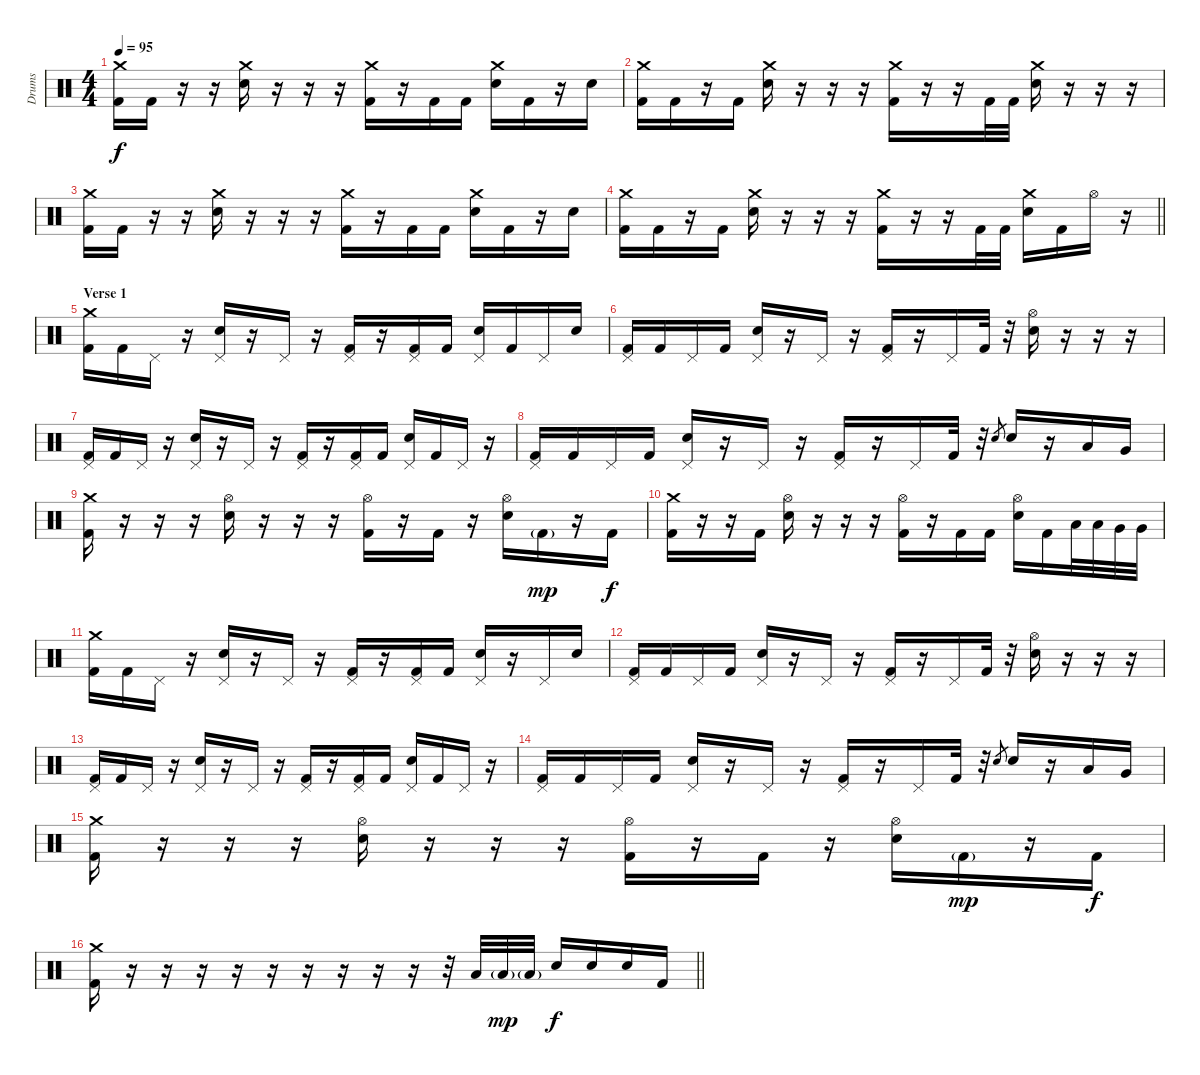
\track ("Drums" "Drums") {instrument percussion}
\staff {score}
\articulation defaults
\ts (4 4)
\tempo 95
\clef neutral
\ks c
("Crash medium (hit)" "Kick (hit) 2").16{dy f} "Kick (hit) 2".16 r.16 r.16 ("Crash medium (hit)" "Electric Snare (hit)").16 r.16 r.16 r.16 ("Crash medium (hit)" "Kick (hit) 2").16 r.16 "Kick (hit) 2".16 "Kick (hit) 2".16 ("Crash medium (hit)" "Electric Snare (hit)").16 "Kick (hit) 2".16 r.16 "Electric Snare (hit)".16 |
("Crash medium (hit)" "Kick (hit) 2").16 "Kick (hit) 2".16 r.16 "Kick (hit) 2".16 ("Crash medium (hit)" "Electric Snare (hit)").16 r.16 r.16 r.16 ("Crash medium (hit)" "Kick (hit) 2").16 r.16 r.16 "Kick (hit) 2".32 "Kick (hit) 2".32 ("Crash medium (hit)" "Electric Snare (hit)").16 r.16 r.16 r.16 |
("Crash medium (hit)" "Kick (hit) 2").16 "Kick (hit) 2".16 r.16 r.16 ("Crash medium (hit)" "Electric Snare (hit)").16 r.16 r.16 r.16 ("Crash medium (hit)" "Kick (hit) 2").16 r.16 "Kick (hit) 2".16 "Kick (hit) 2".16 ("Crash medium (hit)" "Electric Snare (hit)").16 "Kick (hit) 2".16 r.16 "Electric Snare (hit)".16 |
\barLineRight lightlight
("Crash medium (hit)" "Kick (hit) 2").16 "Kick (hit) 2".16 r.16 "Kick (hit) 2".16 ("Crash medium (hit)" "Electric Snare (hit)").16 r.16 r.16 r.16 ("Crash medium (hit)" "Kick (hit) 2").16 r.16 r.16 "Kick (hit) 2".32 "Kick (hit) 2".32 ("Crash medium (hit)" "Electric Snare (hit)").16 "Kick (hit) 2".16 "Hi-Hat (open)".16 r.16 |
\section ("" "Verse 1")
("Crash medium (hit)" "Kick (hit) 2").16 "Kick (hit) 2".16 "Pedal Hi-Hat (hit)".16 r.16 ("Pedal Hi-Hat (hit)" "Electric Snare (hit)").16 r.16 "Pedal Hi-Hat (hit)".16 r.16 ("Pedal Hi-Hat (hit)" "Kick (hit) 2").16 r.16 ("Pedal Hi-Hat (hit)" "Kick (hit) 2").16 "Kick (hit) 2".16 ("Pedal Hi-Hat (hit)" "Electric Snare (hit)").16 "Kick (hit) 2".16 "Pedal Hi-Hat (hit)".16 "Electric Snare (hit)".16 |
("Pedal Hi-Hat (hit)" "Kick (hit) 2").16 "Kick (hit) 2".16 "Pedal Hi-Hat (hit)".16 "Kick (hit) 2".16 ("Pedal Hi-Hat (hit)" "Electric Snare (hit)").16 r.16 "Pedal Hi-Hat (hit)".16 r.16 ("Pedal Hi-Hat (hit)" "Kick (hit) 2").16 r.16 "Pedal Hi-Hat (hit)".16 "Kick (hit) 2".32 r.32 ("Hi-Hat (open)" "Electric Snare (hit)").16 r.16 r.16 r.16 |
("Pedal Hi-Hat (hit)" "Kick (hit) 2").16 "Kick (hit) 2".16 "Pedal Hi-Hat (hit)".16 r.16 ("Pedal Hi-Hat (hit)" "Electric Snare (hit)").16 r.16 "Pedal Hi-Hat (hit)".16 r.16 ("Pedal Hi-Hat (hit)" "Kick (hit) 2").16 r.16 ("Pedal Hi-Hat (hit)" "Kick (hit) 2").16 "Kick (hit) 2".16 ("Pedal Hi-Hat (hit)" "Electric Snare (hit)").16 "Kick (hit) 2".16 "Pedal Hi-Hat (hit)".16 r.16 |
("Pedal Hi-Hat (hit)" "Kick (hit) 2").16 "Kick (hit) 2".16 "Pedal Hi-Hat (hit)".16 "Kick (hit) 2".16 ("Pedal Hi-Hat (hit)" "Electric Snare (hit)").16 r.16 "Pedal Hi-Hat (hit)".16 r.16 ("Pedal Hi-Hat (hit)" "Kick (hit) 2").16 r.16 "Pedal Hi-Hat (hit)".16 "Kick (hit) 2".32 r.32 "Electric Snare (hit)".8{gr} "Electric Snare (hit)".16 r.16 "Low Tom (hit)".16 "Very Low Tom (hit)".16 |
("Crash medium (hit)" "Kick (hit) 2").16 r.16 r.16 r.16 ("Hi-Hat (open)" "Electric Snare (hit)").16 r.16 r.16 r.16 ("Hi-Hat (open)" "Kick (hit) 2").16 r.16 "Kick (hit) 2".16 r.16 ("Hi-Hat (open)" "Electric Snare (hit)").16 "Kick (hit) 2"{g}.16{dy mp} r.16 "Kick (hit) 2".16{dy f} |
("Crash medium (hit)" "Kick (hit) 2").16 r.16 r.16 "Kick (hit) 2".16 ("Hi-Hat (open)" "Electric Snare (hit)").16 r.16 r.16 r.16 ("Hi-Hat (open)" "Kick (hit) 2").16 r.16 "Kick (hit) 2".16 "Kick (hit) 2".16 ("Hi-Hat (open)" "Electric Snare (hit)").16 "Kick (hit) 2".16 "Low Tom (hit)".32 "Low Tom (hit)".32 "Very Low Tom (hit)".32 "Very Low Tom (hit)".32 |
("Crash medium (hit)" "Kick (hit) 2").16 "Kick (hit) 2".16 "Pedal Hi-Hat (hit)".16 r.16 ("Pedal Hi-Hat (hit)" "Electric Snare (hit)").16 r.16 "Pedal Hi-Hat (hit)".16 r.16 ("Pedal Hi-Hat (hit)" "Kick (hit) 2").16 r.16 ("Pedal Hi-Hat (hit)" "Kick (hit) 2").16 "Kick (hit) 2".16 ("Pedal Hi-Hat (hit)" "Electric Snare (hit)").16 r.16 "Pedal Hi-Hat (hit)".16 "Electric Snare (hit)".16 |
("Pedal Hi-Hat (hit)" "Kick (hit) 2").16 "Kick (hit) 2".16 "Pedal Hi-Hat (hit)".16 "Kick (hit) 2".16 ("Pedal Hi-Hat (hit)" "Electric Snare (hit)").16 r.16 "Pedal Hi-Hat (hit)".16 r.16 ("Pedal Hi-Hat (hit)" "Kick (hit) 2").16 r.16 "Pedal Hi-Hat (hit)".16 "Kick (hit) 2".32 r.32 ("Hi-Hat (open)" "Electric Snare (hit)").16 r.16 r.16 r.16 |
("Pedal Hi-Hat (hit)" "Kick (hit) 2").16 "Kick (hit) 2".16 "Pedal Hi-Hat (hit)".16 r.16 ("Pedal Hi-Hat (hit)" "Electric Snare (hit)").16 r.16 "Pedal Hi-Hat (hit)".16 r.16 ("Pedal Hi-Hat (hit)" "Kick (hit) 2").16 r.16 ("Pedal Hi-Hat (hit)" "Kick (hit) 2").16 "Kick (hit) 2".16 ("Pedal Hi-Hat (hit)" "Electric Snare (hit)").16 "Kick (hit) 2".16 "Pedal Hi-Hat (hit)".16 r.16 |
("Pedal Hi-Hat (hit)" "Kick (hit) 2").16 "Kick (hit) 2".16 "Pedal Hi-Hat (hit)".16 "Kick (hit) 2".16 ("Pedal Hi-Hat (hit)" "Electric Snare (hit)").16 r.16 "Pedal Hi-Hat (hit)".16 r.16 ("Pedal Hi-Hat (hit)" "Kick (hit) 2").16 r.16 "Pedal Hi-Hat (hit)".16 "Kick (hit) 2".32 r.32 "Electric Snare (hit)".8{gr} "Electric Snare (hit)".16 r.16 "Low Tom (hit)".16 "Very Low Tom (hit)".16 |
("Crash medium (hit)" "Kick (hit) 2").16 r.16 r.16 r.16 ("Hi-Hat (open)" "Electric Snare (hit)").16 r.16 r.16 r.16 ("Hi-Hat (open)" "Kick (hit) 2").16 r.16 "Kick (hit) 2".16 r.16 ("Hi-Hat (open)" "Electric Snare (hit)").16 "Kick (hit) 2"{g}.16{dy mp} r.16 "Kick (hit) 2".16{dy f} |
\barLineRight lightlight
("Crash medium (hit)" "Kick (hit) 2").16 r.16 r.16 r.16 r.16 r.16 r.16 r.16 r.16 r.16 r.32 "Low Tom (hit)".32 "Low Tom (hit)"{g}.32{dy mp} "Low Tom (hit)"{g}.32 "Electric Snare (hit)".16{dy f} "Electric Snare (hit)".16 "Electric Snare (hit)".16 "Kick (hit) 2".16
